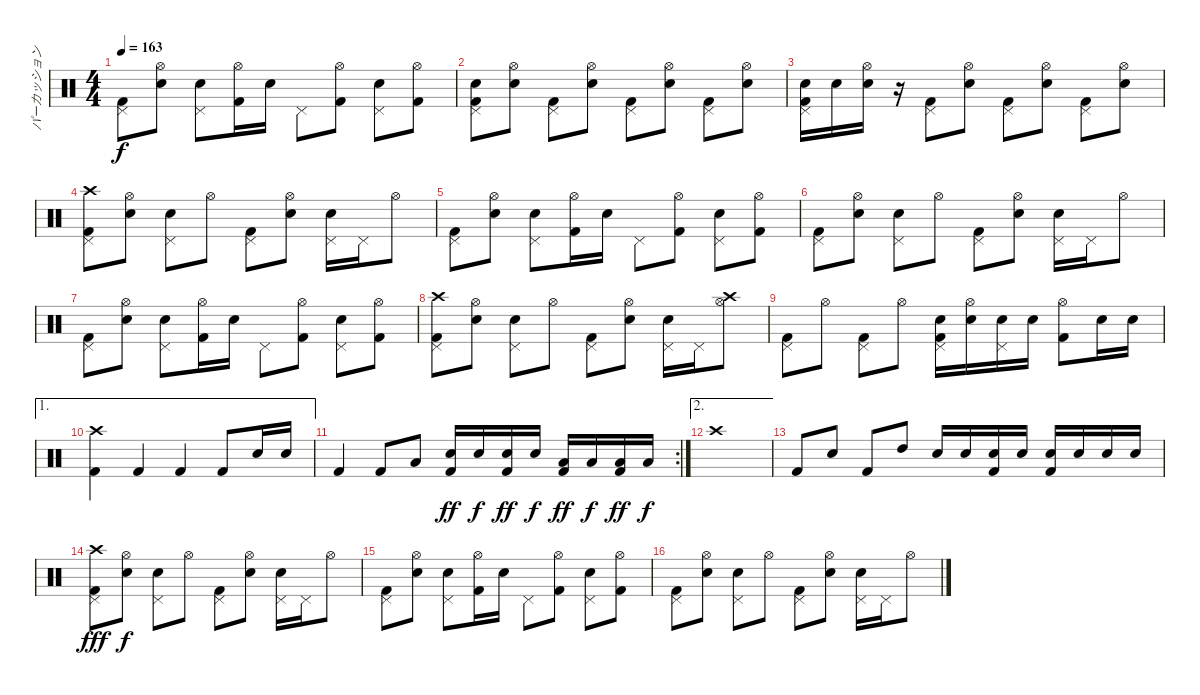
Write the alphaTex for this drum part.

\track ("パーカッション" "パーカッション") {instrument percussion}
\staff {score}
\articulation defaults
\ts (4 4)
\tempo 163
\clef neutral
\ks c
("Pedal Hi-Hat (hit)" "Kick (hit) 2").8{dy f} ("Hi-Hat (open)" "Snare (hit) 2").8 ("Pedal Hi-Hat (hit)" "Snare (hit) 2").8 ("Hi-Hat (open)" "Kick (hit) 2").16 "Snare (hit) 2".16 "Pedal Hi-Hat (hit)".8 ("Hi-Hat (open)" "Kick (hit) 2").8 ("Pedal Hi-Hat (hit)" "Snare (hit) 2").8 ("Hi-Hat (open)" "Kick (hit) 2").8 |
("Pedal Hi-Hat (hit)" "Snare (hit) 2" "Kick (hit) 2").8 ("Hi-Hat (open)" "Snare (hit) 2").8 ("Pedal Hi-Hat (hit)" "Kick (hit) 2").8 ("Hi-Hat (open)" "Snare (hit) 2").8 ("Pedal Hi-Hat (hit)" "Kick (hit) 2").8 ("Hi-Hat (open)" "Snare (hit) 2").8 ("Pedal Hi-Hat (hit)" "Kick (hit) 2").8 ("Hi-Hat (open)" "Snare (hit) 2").8 |
("Pedal Hi-Hat (hit)" "Snare (hit) 2" "Kick (hit) 2").16 "Snare (hit) 2".16 ("Hi-Hat (open)" "Snare (hit) 2").16 r.16 ("Pedal Hi-Hat (hit)" "Kick (hit) 2").8 ("Hi-Hat (open)" "Snare (hit) 2").8 ("Pedal Hi-Hat (hit)" "Kick (hit) 2").8 ("Hi-Hat (open)" "Snare (hit) 2").8 ("Pedal Hi-Hat (hit)" "Kick (hit) 2").8 ("Hi-Hat (open)" "Snare (hit) 2").8 |
("Crash high (hit)" "Pedal Hi-Hat (hit)" "Kick (hit) 2").8 ("Hi-Hat (open)" "Snare (hit) 2").8 ("Pedal Hi-Hat (hit)" "Snare (hit) 2").8 "Hi-Hat (open)".8 ("Pedal Hi-Hat (hit)" "Kick (hit) 2").8 ("Hi-Hat (open)" "Snare (hit) 2").8 ("Pedal Hi-Hat (hit)" "Snare (hit) 2").16 "Pedal Hi-Hat (hit)".16 "Hi-Hat (open)".8 |
("Pedal Hi-Hat (hit)" "Kick (hit) 2").8 ("Hi-Hat (open)" "Snare (hit) 2").8 ("Pedal Hi-Hat (hit)" "Snare (hit) 2").8 ("Hi-Hat (open)" "Kick (hit) 2").16 "Snare (hit) 2".16 "Pedal Hi-Hat (hit)".8 ("Hi-Hat (open)" "Kick (hit) 2").8 ("Pedal Hi-Hat (hit)" "Snare (hit) 2").8 ("Hi-Hat (open)" "Kick (hit) 2").8 |
("Pedal Hi-Hat (hit)" "Kick (hit) 2").8 ("Hi-Hat (open)" "Snare (hit) 2").8 ("Pedal Hi-Hat (hit)" "Snare (hit) 2").8 "Hi-Hat (open)".8 ("Pedal Hi-Hat (hit)" "Kick (hit) 2").8 ("Hi-Hat (open)" "Snare (hit) 2").8 ("Pedal Hi-Hat (hit)" "Snare (hit) 2").16 "Pedal Hi-Hat (hit)".16 "Hi-Hat (open)".8 |
("Pedal Hi-Hat (hit)" "Kick (hit) 2").8 ("Hi-Hat (open)" "Snare (hit) 2").8 ("Pedal Hi-Hat (hit)" "Snare (hit) 2").8 ("Hi-Hat (open)" "Kick (hit) 2").16 "Snare (hit) 2".16 "Pedal Hi-Hat (hit)".8 ("Hi-Hat (open)" "Kick (hit) 2").8 ("Pedal Hi-Hat (hit)" "Snare (hit) 2").8 ("Hi-Hat (open)" "Kick (hit) 2").8 |
("Crash high (hit)" "Pedal Hi-Hat (hit)" "Kick (hit) 2").8 ("Hi-Hat (open)" "Snare (hit) 2").8 ("Pedal Hi-Hat (hit)" "Snare (hit) 2").8 "Hi-Hat (open)".8 ("Pedal Hi-Hat (hit)" "Kick (hit) 2").8 ("Hi-Hat (open)" "Snare (hit) 2").8 ("Pedal Hi-Hat (hit)" "Snare (hit) 2").16 "Pedal Hi-Hat (hit)".16 ("Crash high (hit)" "Hi-Hat (open)").8 |
("Pedal Hi-Hat (hit)" "Kick (hit) 2").8 "Hi-Hat (open)".8 ("Pedal Hi-Hat (hit)" "Kick (hit) 2").8 "Hi-Hat (open)".8 ("Pedal Hi-Hat (hit)" "Snare (hit) 2" "Kick (hit) 2").16 ("Hi-Hat (open)" "Snare (hit) 2").16 ("Pedal Hi-Hat (hit)" "Snare (hit) 2").16 "Snare (hit) 2".16 ("Hi-Hat (open)" "Kick (hit) 2").8 "Snare (hit) 2".16 "Snare (hit) 2".16 |
\ae 1
("Crash high (hit)" "Kick (hit) 2").4 "Kick (hit) 2".4 "Kick (hit) 2".4 "Kick (hit) 2".8 "Snare (hit) 2".16 "Snare (hit) 2".16 |
\rc 2 "Kick (hit) 2".4 "Kick (hit) 2".8 "Low Floor Tom (hit)".8
("Snare (hit) 2" "Kick (hit) 2").16{dy ff} "Snare (hit) 2".16{dy f} ("Snare (hit) 2" "Kick (hit) 2").16{dy ff} "Snare (hit) 2".16{dy f} ("Low Tom (hit)" "Kick (hit) 2").16{dy ff} "Low Tom (hit)".16{dy f} ("Low Tom (hit)" "Kick (hit) 2").16{dy ff} "Low Tom (hit)".16{dy f} |
\ae 2 "Crash high (hit)".1
|
"Kick (hit) 2".8 "Snare (hit) 2".8 "Kick (hit) 2".8 "High Tom (hit)".8 "Snare (hit) 2".16 "Snare (hit) 2".16 ("Snare (hit) 2" "Kick (hit) 2").16 "Snare (hit) 2".16 ("Snare (hit) 2" "Kick (hit) 2").16 "Snare (hit) 2".16 "Snare (hit) 2".16 "Snare (hit) 2".16 |
("Crash high (hit)" "Pedal Hi-Hat (hit)" "Kick (hit) 2").8{dy fff} ("Hi-Hat (open)" "Snare (hit) 2").8{dy f} ("Pedal Hi-Hat (hit)" "Snare (hit) 2").8 "Hi-Hat (open)".8 ("Pedal Hi-Hat (hit)" "Kick (hit) 2").8 ("Hi-Hat (open)" "Snare (hit) 2").8 ("Pedal Hi-Hat (hit)" "Snare (hit) 2").16 "Pedal Hi-Hat (hit)".16 "Hi-Hat (open)".8 |
("Pedal Hi-Hat (hit)" "Kick (hit) 2").8 ("Hi-Hat (open)" "Snare (hit) 2").8 ("Pedal Hi-Hat (hit)" "Snare (hit) 2").8 ("Hi-Hat (open)" "Kick (hit) 2").16 "Snare (hit) 2".16 "Pedal Hi-Hat (hit)".8 ("Hi-Hat (open)" "Kick (hit) 2").8 ("Pedal Hi-Hat (hit)" "Snare (hit) 2").8 ("Hi-Hat (open)" "Kick (hit) 2").8 |
("Pedal Hi-Hat (hit)" "Kick (hit) 2").8 ("Hi-Hat (open)" "Snare (hit) 2").8 ("Pedal Hi-Hat (hit)" "Snare (hit) 2").8 "Hi-Hat (open)".8 ("Pedal Hi-Hat (hit)" "Kick (hit) 2").8 ("Hi-Hat (open)" "Snare (hit) 2").8 ("Pedal Hi-Hat (hit)" "Snare (hit) 2").16 "Pedal Hi-Hat (hit)".16 "Hi-Hat (open)".8
